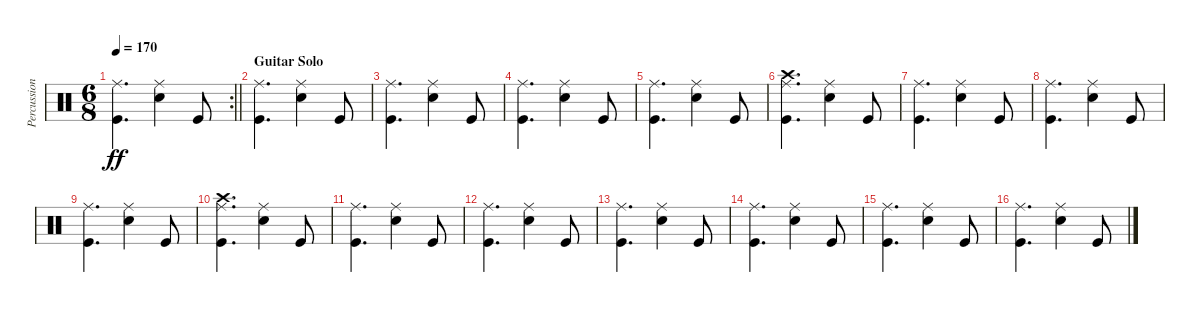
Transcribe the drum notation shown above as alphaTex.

\track ("Percussion" "Percussion") {instrument percussion}
\staff {score}
\articulation defaults
\rc 2
\ts (6 8)
\tempo 170
\clef neutral
\barLineRight lightlight
\ks c
("Ride (middle)" "Kick (hit)").4{d dy ff} ("Ride (middle)" "Snare (hit) 2").4 "Kick (hit)".8 |
\section ("" "Guitar Solo")
("Ride (middle)" "Kick (hit)").4{d} ("Ride (middle)" "Snare (hit) 2").4 "Kick (hit)".8 |
("Ride (middle)" "Kick (hit)").4{d} ("Ride (middle)" "Snare (hit) 2").4 "Kick (hit)".8 |
("Ride (middle)" "Kick (hit)").4{d} ("Ride (middle)" "Snare (hit) 2").4 "Kick (hit)".8 |
("Ride (middle)" "Kick (hit)").4{d} ("Ride (middle)" "Snare (hit) 2").4 "Kick (hit)".8 |
("Ride (middle)" "Crash high (hit)" "Kick (hit)").4{d} ("Ride (middle)" "Snare (hit) 2").4 "Kick (hit)".8 |
("Ride (middle)" "Kick (hit)").4{d} ("Ride (middle)" "Snare (hit) 2").4 "Kick (hit)".8 |
("Ride (middle)" "Kick (hit)").4{d} ("Ride (middle)" "Snare (hit) 2").4 "Kick (hit)".8 |
("Ride (middle)" "Kick (hit)").4{d} ("Ride (middle)" "Snare (hit) 2").4 "Kick (hit)".8 |
("Ride (middle)" "Crash high (hit)" "Kick (hit)").4{d} ("Ride (middle)" "Snare (hit) 2").4 "Kick (hit)".8 |
("Ride (middle)" "Kick (hit)").4{d} ("Ride (middle)" "Snare (hit) 2").4 "Kick (hit)".8 |
("Ride (middle)" "Kick (hit)").4{d} ("Ride (middle)" "Snare (hit) 2").4 "Kick (hit)".8 |
("Ride (middle)" "Kick (hit)").4{d} ("Ride (middle)" "Snare (hit) 2").4 "Kick (hit)".8 |
("Ride (middle)" "Kick (hit)").4{d} ("Ride (middle)" "Snare (hit) 2").4 "Kick (hit)".8 |
("Ride (middle)" "Kick (hit)").4{d} ("Ride (middle)" "Snare (hit) 2").4 "Kick (hit)".8 |
("Ride (middle)" "Kick (hit)").4{d} ("Ride (middle)" "Snare (hit) 2").4 "Kick (hit)".8
